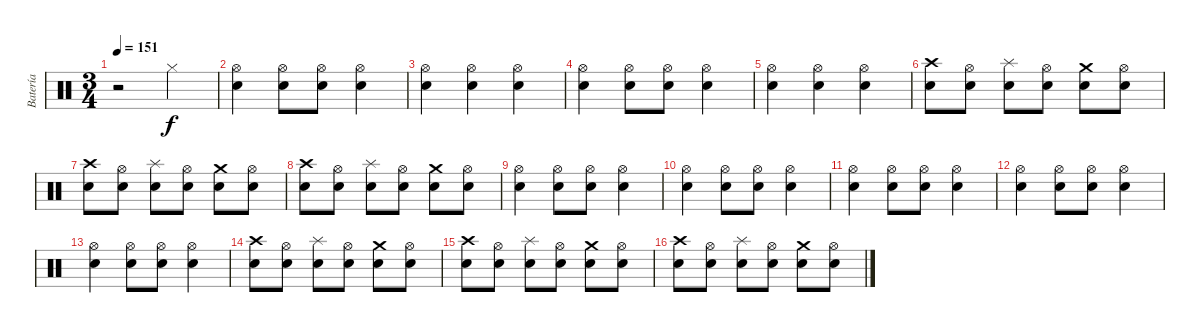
\track ("Batería" "Batería") {instrument percussion}
\staff {score}
\articulation defaults
\ts (3 4)
\tempo 151
\clef neutral
\ks c
r.2{dy f} "Hi-Hat (closed)".4 |
("Hi-Hat (open)" "Snare (hit) 2").4 ("Hi-Hat (open)" "Snare (hit) 2").8 ("Hi-Hat (open)" "Snare (hit) 2").8 ("Hi-Hat (open)" "Snare (hit) 2").4 |
("Hi-Hat (open)" "Snare (hit) 2").4 ("Hi-Hat (open)" "Snare (hit) 2").4 ("Hi-Hat (open)" "Snare (hit) 2").4 |
("Hi-Hat (open)" "Snare (hit) 2").4 ("Hi-Hat (open)" "Snare (hit) 2").8 ("Hi-Hat (open)" "Snare (hit) 2").8 ("Hi-Hat (open)" "Snare (hit) 2").4 |
("Hi-Hat (open)" "Snare (hit) 2").4 ("Hi-Hat (open)" "Snare (hit) 2").4 ("Hi-Hat (open)" "Snare (hit) 2").4 |
("Crash high (hit)" "Snare (hit) 2").8 ("Hi-Hat (open)" "Snare (hit) 2").8 ("Splash (hit)" "Snare (hit) 2").8 ("Hi-Hat (open)" "Snare (hit) 2").8 ("Crash medium (hit)" "Snare (hit) 2").8 ("Hi-Hat (open)" "Snare (hit) 2").8 |
("Crash high (hit)" "Snare (hit) 2").8 ("Hi-Hat (open)" "Snare (hit) 2").8 ("Splash (hit)" "Snare (hit) 2").8 ("Hi-Hat (open)" "Snare (hit) 2").8 ("Crash medium (hit)" "Snare (hit) 2").8 ("Hi-Hat (open)" "Snare (hit) 2").8 |
("Crash high (hit)" "Snare (hit) 2").8 ("Hi-Hat (open)" "Snare (hit) 2").8 ("Splash (hit)" "Snare (hit) 2").8 ("Hi-Hat (open)" "Snare (hit) 2").8 ("Crash medium (hit)" "Snare (hit) 2").8 ("Hi-Hat (open)" "Snare (hit) 2").8 |
("Hi-Hat (open)" "Snare (hit) 2").4 ("Hi-Hat (open)" "Snare (hit) 2").8 ("Hi-Hat (open)" "Snare (hit) 2").8 ("Hi-Hat (open)" "Snare (hit) 2").4 |
("Hi-Hat (open)" "Snare (hit) 2").4 ("Hi-Hat (open)" "Snare (hit) 2").8 ("Hi-Hat (open)" "Snare (hit) 2").8 ("Hi-Hat (open)" "Snare (hit) 2").4 |
("Hi-Hat (open)" "Snare (hit) 2").4 ("Hi-Hat (open)" "Snare (hit) 2").8 ("Hi-Hat (open)" "Snare (hit) 2").8 ("Hi-Hat (open)" "Snare (hit) 2").4 |
("Hi-Hat (open)" "Snare (hit) 2").4 ("Hi-Hat (open)" "Snare (hit) 2").8 ("Hi-Hat (open)" "Snare (hit) 2").8 ("Hi-Hat (open)" "Snare (hit) 2").4 |
("Hi-Hat (open)" "Snare (hit) 2").4 ("Hi-Hat (open)" "Snare (hit) 2").8 ("Hi-Hat (open)" "Snare (hit) 2").8 ("Hi-Hat (open)" "Snare (hit) 2").4 |
("Crash high (hit)" "Snare (hit) 2").8 ("Hi-Hat (open)" "Snare (hit) 2").8 ("Splash (hit)" "Snare (hit) 2").8 ("Hi-Hat (open)" "Snare (hit) 2").8 ("Crash medium (hit)" "Snare (hit) 2").8 ("Hi-Hat (open)" "Snare (hit) 2").8 |
("Crash high (hit)" "Snare (hit) 2").8 ("Hi-Hat (open)" "Snare (hit) 2").8 ("Splash (hit)" "Snare (hit) 2").8 ("Hi-Hat (open)" "Snare (hit) 2").8 ("Crash medium (hit)" "Snare (hit) 2").8 ("Hi-Hat (open)" "Snare (hit) 2").8 |
("Crash high (hit)" "Snare (hit) 2").8 ("Hi-Hat (open)" "Snare (hit) 2").8 ("Splash (hit)" "Snare (hit) 2").8 ("Hi-Hat (open)" "Snare (hit) 2").8 ("Crash medium (hit)" "Snare (hit) 2").8 ("Hi-Hat (open)" "Snare (hit) 2").8
